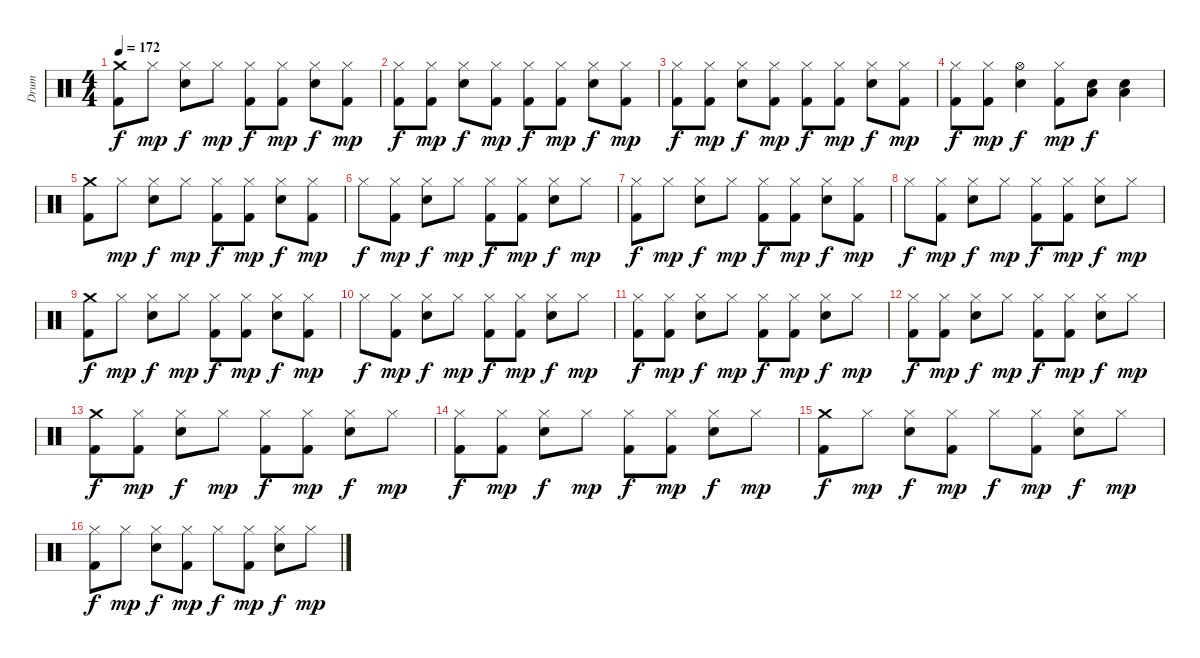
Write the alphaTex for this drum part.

\track ("Drum" "Drum") {instrument percussion}
\staff {score}
\articulation defaults
\ts (4 4)
\tempo 172
\clef neutral
\ks c
("Crash medium (hit)" "Kick (hit) 2").8{dy f} "Hi-Hat (closed)".8{dy mp} ("Hi-Hat (closed)" "Electric Snare (hit)").8{dy f} "Hi-Hat (closed)".8{dy mp} ("Hi-Hat (closed)" "Kick (hit) 2").8{dy f} ("Hi-Hat (closed)" "Kick (hit) 2").8{dy mp} ("Hi-Hat (closed)" "Electric Snare (hit)").8{dy f} ("Hi-Hat (closed)" "Kick (hit) 2").8{dy mp} |
("Hi-Hat (closed)" "Kick (hit) 2").8{dy f} ("Hi-Hat (closed)" "Kick (hit) 2").8{dy mp} ("Hi-Hat (closed)" "Electric Snare (hit)").8{dy f} ("Hi-Hat (closed)" "Kick (hit) 2").8{dy mp} ("Hi-Hat (closed)" "Kick (hit) 2").8{dy f} ("Hi-Hat (closed)" "Kick (hit) 2").8{dy mp} ("Hi-Hat (closed)" "Electric Snare (hit)").8{dy f} ("Hi-Hat (closed)" "Kick (hit) 2").8{dy mp} |
("Hi-Hat (closed)" "Kick (hit) 2").8{dy f} ("Hi-Hat (closed)" "Kick (hit) 2").8{dy mp} ("Hi-Hat (closed)" "Electric Snare (hit)").8{dy f} ("Hi-Hat (closed)" "Kick (hit) 2").8{dy mp} ("Hi-Hat (closed)" "Kick (hit) 2").8{dy f} ("Hi-Hat (closed)" "Kick (hit) 2").8{dy mp} ("Hi-Hat (closed)" "Electric Snare (hit)").8{dy f} ("Hi-Hat (closed)" "Kick (hit) 2").8{dy mp} |
("Hi-Hat (closed)" "Kick (hit) 2").8{dy f} ("Hi-Hat (closed)" "Kick (hit) 2").8{dy mp} ("Hi-Hat (open)" "Electric Snare (hit)").4{dy f} ("Hi-Hat (closed)" "Kick (hit) 2").8{dy mp} ("Electric Snare (hit)" "Low Tom (hit)").8{dy f} ("Electric Snare (hit)" "Low Tom (hit)").4 |
("Crash medium (hit)" "Kick (hit) 2").8 "Hi-Hat (closed)".8{dy mp} ("Hi-Hat (closed)" "Electric Snare (hit)").8{dy f} "Hi-Hat (closed)".8{dy mp} ("Hi-Hat (closed)" "Kick (hit) 2").8{dy f} ("Hi-Hat (closed)" "Kick (hit) 2").8{dy mp} ("Hi-Hat (closed)" "Electric Snare (hit)").8{dy f} ("Hi-Hat (closed)" "Kick (hit) 2").8{dy mp} |
"Hi-Hat (closed)".8{dy f} ("Hi-Hat (closed)" "Kick (hit) 2").8{dy mp} ("Hi-Hat (closed)" "Electric Snare (hit)").8{dy f} "Hi-Hat (closed)".8{dy mp} ("Hi-Hat (closed)" "Kick (hit) 2").8{dy f} ("Hi-Hat (closed)" "Kick (hit) 2").8{dy mp} ("Hi-Hat (closed)" "Electric Snare (hit)").8{dy f} "Hi-Hat (closed)".8{dy mp} |
("Hi-Hat (closed)" "Kick (hit) 2").8{dy f} "Hi-Hat (closed)".8{dy mp} ("Hi-Hat (closed)" "Electric Snare (hit)").8{dy f} "Hi-Hat (closed)".8{dy mp} ("Hi-Hat (closed)" "Kick (hit) 2").8{dy f} ("Hi-Hat (closed)" "Kick (hit) 2").8{dy mp} ("Hi-Hat (closed)" "Electric Snare (hit)").8{dy f} ("Hi-Hat (closed)" "Kick (hit) 2").8{dy mp} |
"Hi-Hat (closed)".8{dy f} ("Hi-Hat (closed)" "Kick (hit) 2").8{dy mp} ("Hi-Hat (closed)" "Electric Snare (hit)").8{dy f} "Hi-Hat (closed)".8{dy mp} ("Hi-Hat (closed)" "Kick (hit) 2").8{dy f} ("Hi-Hat (closed)" "Kick (hit) 2").8{dy mp} ("Hi-Hat (closed)" "Electric Snare (hit)").8{dy f} "Hi-Hat (closed)".8{dy mp} |
("Crash medium (hit)" "Kick (hit) 2").8{dy f} "Hi-Hat (closed)".8{dy mp} ("Hi-Hat (closed)" "Electric Snare (hit)").8{dy f} "Hi-Hat (closed)".8{dy mp} ("Hi-Hat (closed)" "Kick (hit) 2").8{dy f} ("Hi-Hat (closed)" "Kick (hit) 2").8{dy mp} ("Hi-Hat (closed)" "Electric Snare (hit)").8{dy f} ("Hi-Hat (closed)" "Kick (hit) 2").8{dy mp} |
"Hi-Hat (closed)".8{dy f} ("Hi-Hat (closed)" "Kick (hit) 2").8{dy mp} ("Hi-Hat (closed)" "Electric Snare (hit)").8{dy f} "Hi-Hat (closed)".8{dy mp} ("Hi-Hat (closed)" "Kick (hit) 2").8{dy f} ("Hi-Hat (closed)" "Kick (hit) 2").8{dy mp} ("Hi-Hat (closed)" "Electric Snare (hit)").8{dy f} "Hi-Hat (closed)".8{dy mp} |
("Hi-Hat (closed)" "Kick (hit) 2").8{dy f} ("Hi-Hat (closed)" "Kick (hit) 2").8{dy mp} ("Hi-Hat (closed)" "Electric Snare (hit)").8{dy f} "Hi-Hat (closed)".8{dy mp} ("Hi-Hat (closed)" "Kick (hit) 2").8{dy f} ("Hi-Hat (closed)" "Kick (hit) 2").8{dy mp} ("Hi-Hat (closed)" "Electric Snare (hit)").8{dy f} "Hi-Hat (closed)".8{dy mp} |
("Hi-Hat (closed)" "Kick (hit) 2").8{dy f} ("Hi-Hat (closed)" "Kick (hit) 2").8{dy mp} ("Hi-Hat (closed)" "Electric Snare (hit)").8{dy f} "Hi-Hat (closed)".8{dy mp} ("Hi-Hat (closed)" "Kick (hit) 2").8{dy f} ("Hi-Hat (closed)" "Kick (hit) 2").8{dy mp} ("Hi-Hat (closed)" "Electric Snare (hit)").8{dy f} "Hi-Hat (closed)".8{dy mp} |
("Crash medium (hit)" "Kick (hit) 2").8{dy f} ("Hi-Hat (closed)" "Kick (hit) 2").8{dy mp} ("Hi-Hat (closed)" "Electric Snare (hit)").8{dy f} "Hi-Hat (closed)".8{dy mp} ("Hi-Hat (closed)" "Kick (hit) 2").8{dy f} ("Hi-Hat (closed)" "Kick (hit) 2").8{dy mp} ("Hi-Hat (closed)" "Electric Snare (hit)").8{dy f} "Hi-Hat (closed)".8{dy mp} |
("Hi-Hat (closed)" "Kick (hit) 2").8{dy f} ("Hi-Hat (closed)" "Kick (hit) 2").8{dy mp} ("Hi-Hat (closed)" "Electric Snare (hit)").8{dy f} "Hi-Hat (closed)".8{dy mp} ("Hi-Hat (closed)" "Kick (hit) 2").8{dy f} ("Hi-Hat (closed)" "Kick (hit) 2").8{dy mp} ("Hi-Hat (closed)" "Electric Snare (hit)").8{dy f} "Hi-Hat (closed)".8{dy mp} |
("Crash medium (hit)" "Kick (hit) 2").8{dy f} "Hi-Hat (closed)".8{dy mp} ("Hi-Hat (closed)" "Electric Snare (hit)").8{dy f} ("Hi-Hat (closed)" "Kick (hit) 2").8{dy mp} "Hi-Hat (closed)".8{dy f} ("Hi-Hat (closed)" "Kick (hit) 2").8{dy mp} ("Hi-Hat (closed)" "Electric Snare (hit)").8{dy f} "Hi-Hat (closed)".8{dy mp} |
("Hi-Hat (closed)" "Kick (hit) 2").8{dy f} "Hi-Hat (closed)".8{dy mp} ("Hi-Hat (closed)" "Electric Snare (hit)").8{dy f} ("Hi-Hat (closed)" "Kick (hit) 2").8{dy mp} "Hi-Hat (closed)".8{dy f} ("Hi-Hat (closed)" "Kick (hit) 2").8{dy mp} ("Hi-Hat (closed)" "Electric Snare (hit)").8{dy f} "Hi-Hat (closed)".8{dy mp}
